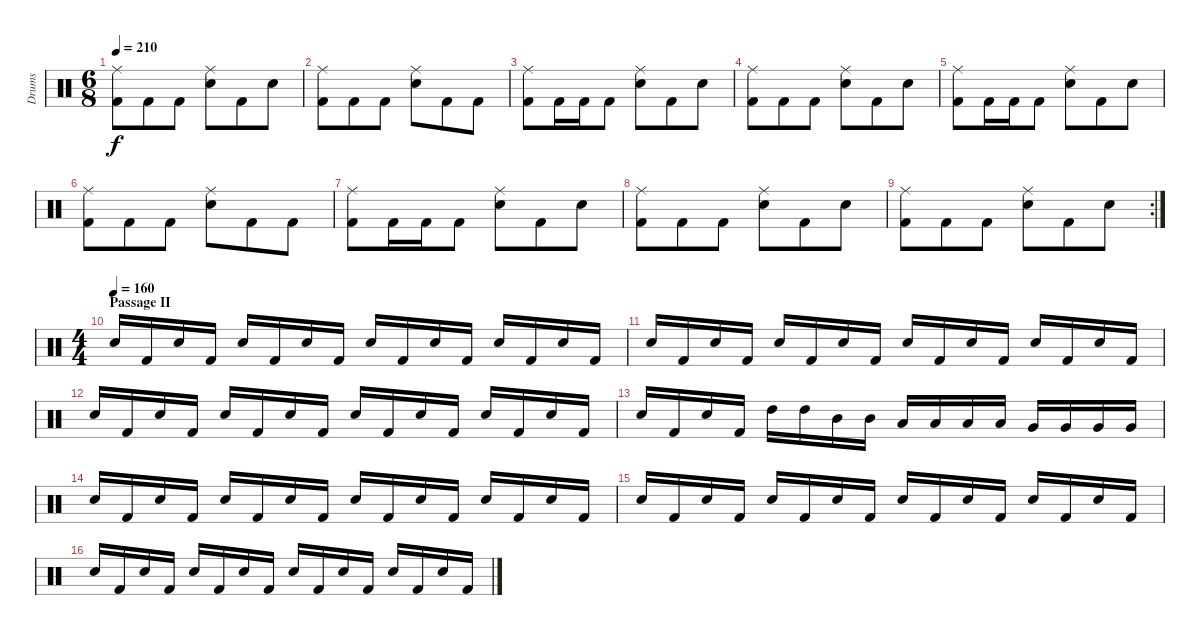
\track ("Drums" "Drums") {instrument percussion}
\staff {score}
\articulation defaults
\ts (6 8)
\tempo 210
\clef neutral
\ks c
("Ride (middle)" "Kick (hit) 2").8{dy f} "Kick (hit) 2".8 "Kick (hit) 2".8 ("Ride (middle)" "Electric Snare (hit)").8 "Kick (hit) 2".8 "Electric Snare (hit)".8 |
("Ride (middle)" "Kick (hit) 2").8 "Kick (hit) 2".8 "Kick (hit) 2".8 ("Ride (middle)" "Electric Snare (hit)").8 "Kick (hit) 2".8 "Kick (hit) 2".8 |
("Ride (middle)" "Kick (hit) 2").8 "Kick (hit) 2".16 "Kick (hit) 2".16 "Kick (hit) 2".8 ("Ride (middle)" "Electric Snare (hit)").8 "Kick (hit) 2".8 "Electric Snare (hit)".8 |
("Ride (middle)" "Kick (hit) 2").8 "Kick (hit) 2".8 "Kick (hit) 2".8 ("Ride (middle)" "Electric Snare (hit)").8 "Kick (hit) 2".8 "Electric Snare (hit)".8 |
("Ride (middle)" "Kick (hit) 2").8 "Kick (hit) 2".16 "Kick (hit) 2".16 "Kick (hit) 2".8 ("Ride (middle)" "Electric Snare (hit)").8 "Kick (hit) 2".8 "Electric Snare (hit)".8 |
("Ride (middle)" "Kick (hit) 2").8 "Kick (hit) 2".8 "Kick (hit) 2".8 ("Ride (middle)" "Electric Snare (hit)").8 "Kick (hit) 2".8 "Kick (hit) 2".8 |
("Ride (middle)" "Kick (hit) 2").8 "Kick (hit) 2".16 "Kick (hit) 2".16 "Kick (hit) 2".8 ("Ride (middle)" "Electric Snare (hit)").8 "Kick (hit) 2".8 "Electric Snare (hit)".8 |
("Ride (middle)" "Kick (hit) 2").8 "Kick (hit) 2".8 "Kick (hit) 2".8 ("Ride (middle)" "Electric Snare (hit)").8 "Kick (hit) 2".8 "Electric Snare (hit)".8 |
\rc 2
("Ride (middle)" "Kick (hit) 2").8 "Kick (hit) 2".8 "Kick (hit) 2".8 ("Ride (middle)" "Electric Snare (hit)").8 "Kick (hit) 2".8 "Electric Snare (hit)".8 |
\ts (4 4)
\section ("" "Passage II")
\tempo (160)
"Electric Snare (hit)".16 "Kick (hit) 2".16 "Electric Snare (hit)".16 "Kick (hit) 2".16 "Electric Snare (hit)".16 "Kick (hit) 2".16 "Electric Snare (hit)".16 "Kick (hit) 2".16 "Electric Snare (hit)".16 "Kick (hit) 2".16 "Electric Snare (hit)".16 "Kick (hit) 2".16 "Electric Snare (hit)".16 "Kick (hit) 2".16 "Electric Snare (hit)".16 "Kick (hit) 2".16 |
"Electric Snare (hit)".16 "Kick (hit) 2".16 "Electric Snare (hit)".16 "Kick (hit) 2".16 "Electric Snare (hit)".16 "Kick (hit) 2".16 "Electric Snare (hit)".16 "Kick (hit) 2".16 "Electric Snare (hit)".16 "Kick (hit) 2".16 "Electric Snare (hit)".16 "Kick (hit) 2".16 "Electric Snare (hit)".16 "Kick (hit) 2".16 "Electric Snare (hit)".16 "Kick (hit) 2".16 |
"Electric Snare (hit)".16 "Kick (hit) 2".16 "Electric Snare (hit)".16 "Kick (hit) 2".16 "Electric Snare (hit)".16 "Kick (hit) 2".16 "Electric Snare (hit)".16 "Kick (hit) 2".16 "Electric Snare (hit)".16 "Kick (hit) 2".16 "Electric Snare (hit)".16 "Kick (hit) 2".16 "Electric Snare (hit)".16 "Kick (hit) 2".16 "Electric Snare (hit)".16 "Kick (hit) 2".16 |
"Electric Snare (hit)".16 "Kick (hit) 2".16 "Electric Snare (hit)".16 "Kick (hit) 2".16 "High Tom (hit)".16 "High Tom (hit)".16 "Mid Tom (hit)".16 "Mid Tom (hit)".16 "Low Tom (hit)".16 "Low Tom (hit)".16 "Low Tom (hit)".16 "Low Tom (hit)".16 "Very Low Tom (hit)".16 "Very Low Tom (hit)".16 "Very Low Tom (hit)".16 "Very Low Tom (hit)".16 |
"Electric Snare (hit)".16 "Kick (hit) 2".16 "Electric Snare (hit)".16 "Kick (hit) 2".16 "Electric Snare (hit)".16 "Kick (hit) 2".16 "Electric Snare (hit)".16 "Kick (hit) 2".16 "Electric Snare (hit)".16 "Kick (hit) 2".16 "Electric Snare (hit)".16 "Kick (hit) 2".16 "Electric Snare (hit)".16 "Kick (hit) 2".16 "Electric Snare (hit)".16 "Kick (hit) 2".16 |
"Electric Snare (hit)".16 "Kick (hit) 2".16 "Electric Snare (hit)".16 "Kick (hit) 2".16 "Electric Snare (hit)".16 "Kick (hit) 2".16 "Electric Snare (hit)".16 "Kick (hit) 2".16 "Electric Snare (hit)".16 "Kick (hit) 2".16 "Electric Snare (hit)".16 "Kick (hit) 2".16 "Electric Snare (hit)".16 "Kick (hit) 2".16 "Electric Snare (hit)".16 "Kick (hit) 2".16 |
"Electric Snare (hit)".16 "Kick (hit) 2".16 "Electric Snare (hit)".16 "Kick (hit) 2".16 "Electric Snare (hit)".16 "Kick (hit) 2".16 "Electric Snare (hit)".16 "Kick (hit) 2".16 "Electric Snare (hit)".16 "Kick (hit) 2".16 "Electric Snare (hit)".16 "Kick (hit) 2".16 "Electric Snare (hit)".16 "Kick (hit) 2".16 "Electric Snare (hit)".16 "Kick (hit) 2".16
